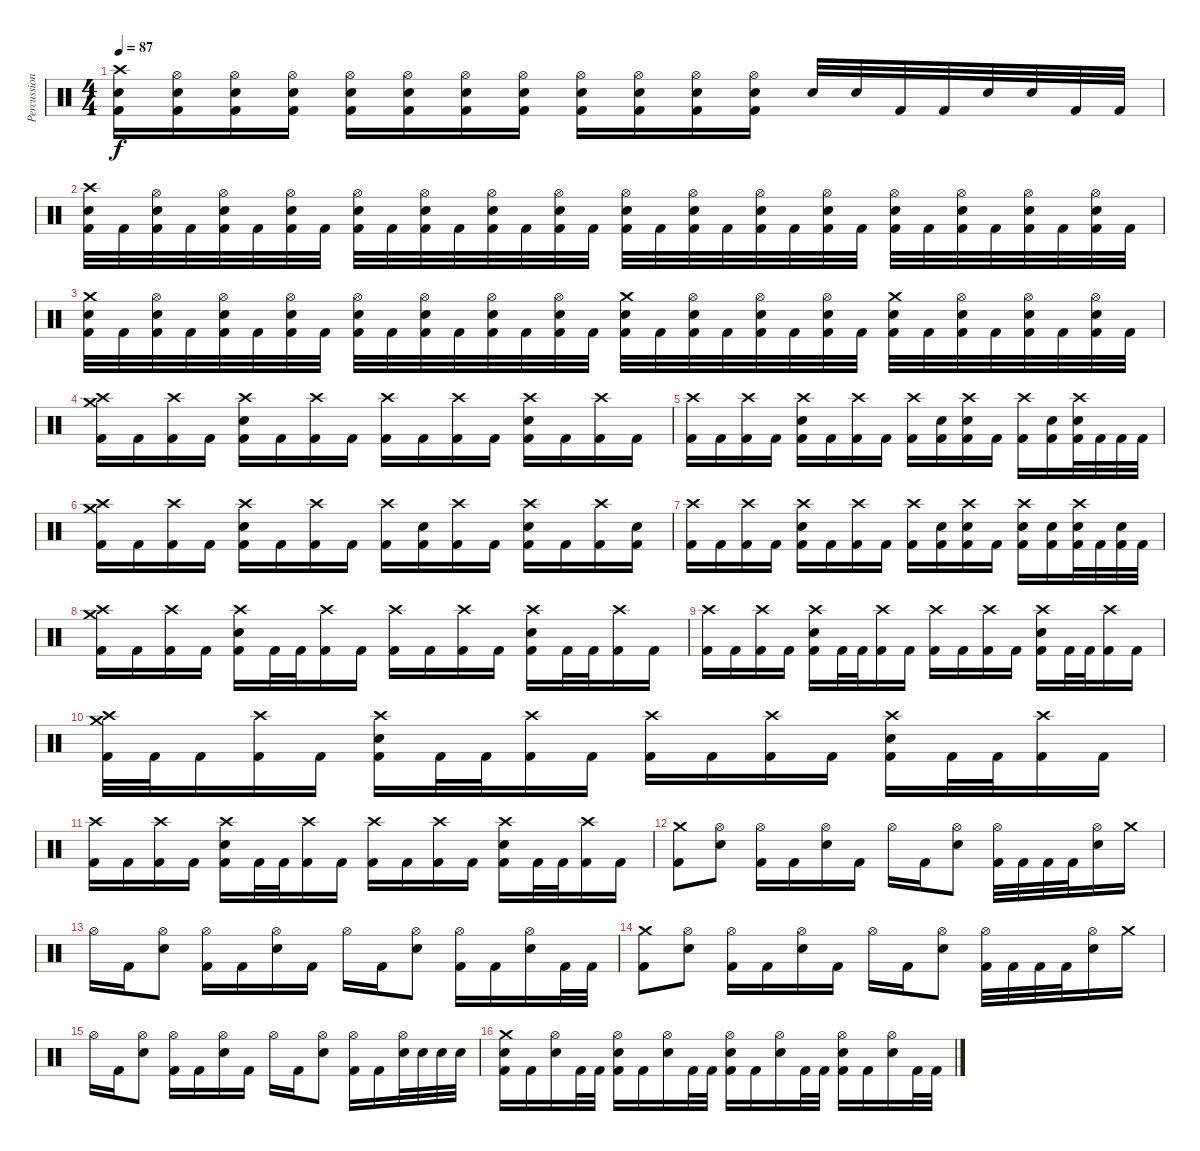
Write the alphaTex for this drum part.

\track ("Percussion" "Percussion") {instrument percussion}
\staff {score}
\articulation defaults
\ts (4 4)
\tempo 87
\clef neutral
\ks c
("Crash high (hit)" "Electric Snare (hit)" "Kick (hit) 2").16{dy f} ("Hi-Hat (open)" "Electric Snare (hit)" "Kick (hit) 2").16 ("Hi-Hat (open)" "Electric Snare (hit)" "Kick (hit) 2").16 ("Hi-Hat (open)" "Electric Snare (hit)" "Kick (hit) 2").16 ("Hi-Hat (open)" "Electric Snare (hit)" "Kick (hit) 2").16 ("Hi-Hat (open)" "Electric Snare (hit)" "Kick (hit) 2").16 ("Hi-Hat (open)" "Electric Snare (hit)" "Kick (hit) 2").16 ("Hi-Hat (open)" "Electric Snare (hit)" "Kick (hit) 2").16 ("Hi-Hat (open)" "Electric Snare (hit)" "Kick (hit) 2").16 ("Hi-Hat (open)" "Electric Snare (hit)" "Kick (hit) 2").16 ("Hi-Hat (open)" "Electric Snare (hit)" "Kick (hit) 2").16 ("Hi-Hat (open)" "Electric Snare (hit)" "Kick (hit) 2").16 "Electric Snare (hit)".32 "Electric Snare (hit)".32 "Kick (hit) 2".32 "Kick (hit) 2".32 "Electric Snare (hit)".32 "Electric Snare (hit)".32 "Kick (hit) 2".32 "Kick (hit) 2".32 |
("Crash high (hit)" "Electric Snare (hit)" "Kick (hit) 2").32 "Kick (hit) 2".32 ("Hi-Hat (open)" "Electric Snare (hit)" "Kick (hit) 2").32 "Kick (hit) 2".32 ("Hi-Hat (open)" "Electric Snare (hit)" "Kick (hit) 2").32 "Kick (hit) 2".32 ("Hi-Hat (open)" "Electric Snare (hit)" "Kick (hit) 2").32 "Kick (hit) 2".32 ("Hi-Hat (open)" "Electric Snare (hit)" "Kick (hit) 2").32 "Kick (hit) 2".32 ("Hi-Hat (open)" "Electric Snare (hit)" "Kick (hit) 2").32 "Kick (hit) 2".32 ("Hi-Hat (open)" "Electric Snare (hit)" "Kick (hit) 2").32 "Kick (hit) 2".32 ("Hi-Hat (open)" "Electric Snare (hit)" "Kick (hit) 2").32 "Kick (hit) 2".32 ("Hi-Hat (open)" "Electric Snare (hit)" "Kick (hit) 2").32 "Kick (hit) 2".32 ("Hi-Hat (open)" "Electric Snare (hit)" "Kick (hit) 2").32 "Kick (hit) 2".32 ("Hi-Hat (open)" "Electric Snare (hit)" "Kick (hit) 2").32 "Kick (hit) 2".32 ("Hi-Hat (open)" "Electric Snare (hit)" "Kick (hit) 2").32 "Kick (hit) 2".32 ("Hi-Hat (open)" "Electric Snare (hit)" "Kick (hit) 2").32 "Kick (hit) 2".32 ("Hi-Hat (open)" "Electric Snare (hit)" "Kick (hit) 2").32 "Kick (hit) 2".32 ("Hi-Hat (open)" "Electric Snare (hit)" "Kick (hit) 2").32 "Kick (hit) 2".32 ("Hi-Hat (open)" "Electric Snare (hit)" "Kick (hit) 2").32 "Kick (hit) 2".32 |
("Crash medium (hit)" "Electric Snare (hit)" "Kick (hit) 2").32 "Kick (hit) 2".32 ("Hi-Hat (open)" "Electric Snare (hit)" "Kick (hit) 2").32 "Kick (hit) 2".32 ("Hi-Hat (open)" "Electric Snare (hit)" "Kick (hit) 2").32 "Kick (hit) 2".32 ("Hi-Hat (open)" "Electric Snare (hit)" "Kick (hit) 2").32 "Kick (hit) 2".32 ("Hi-Hat (open)" "Electric Snare (hit)" "Kick (hit) 2").32 "Kick (hit) 2".32 ("Hi-Hat (open)" "Electric Snare (hit)" "Kick (hit) 2").32 "Kick (hit) 2".32 ("Hi-Hat (open)" "Electric Snare (hit)" "Kick (hit) 2").32 "Kick (hit) 2".32 ("Hi-Hat (open)" "Electric Snare (hit)" "Kick (hit) 2").32 "Kick (hit) 2".32 ("Crash medium (hit)" "Electric Snare (hit)" "Kick (hit) 2").32 "Kick (hit) 2".32 ("Hi-Hat (open)" "Electric Snare (hit)" "Kick (hit) 2").32 "Kick (hit) 2".32 ("Hi-Hat (open)" "Electric Snare (hit)" "Kick (hit) 2").32 "Kick (hit) 2".32 ("Hi-Hat (open)" "Electric Snare (hit)" "Kick (hit) 2").32 "Kick (hit) 2".32 ("Crash medium (hit)" "Electric Snare (hit)" "Kick (hit) 2").32 "Kick (hit) 2".32 ("Hi-Hat (open)" "Electric Snare (hit)" "Kick (hit) 2").32 "Kick (hit) 2".32 ("Hi-Hat (open)" "Electric Snare (hit)" "Kick (hit) 2").32 "Kick (hit) 2".32 ("Hi-Hat (open)" "Electric Snare (hit)" "Kick (hit) 2").32 "Kick (hit) 2".32 |
("Crash medium (hit)" "Crash high (hit)" "Kick (hit) 2").16 "Kick (hit) 2".16 ("Crash high (hit)" "Kick (hit) 2").16 "Kick (hit) 2".16 ("Crash high (hit)" "Electric Snare (hit)" "Kick (hit) 2").16 "Kick (hit) 2".16 ("Crash high (hit)" "Kick (hit) 2").16 "Kick (hit) 2".16 ("Crash high (hit)" "Kick (hit) 2").16 "Kick (hit) 2".16 ("Crash high (hit)" "Kick (hit) 2").16 "Kick (hit) 2".16 ("Crash high (hit)" "Electric Snare (hit)" "Kick (hit) 2").16 "Kick (hit) 2".16 ("Crash high (hit)" "Kick (hit) 2").16 "Kick (hit) 2".16 |
("Crash high (hit)" "Kick (hit) 2").16 "Kick (hit) 2".16 ("Crash high (hit)" "Kick (hit) 2").16 "Kick (hit) 2".16 ("Crash high (hit)" "Electric Snare (hit)" "Kick (hit) 2").16 "Kick (hit) 2".16 ("Crash high (hit)" "Kick (hit) 2").16 "Kick (hit) 2".16 ("Crash high (hit)" "Kick (hit) 2").16 ("Electric Snare (hit)" "Kick (hit) 2").16 ("Crash high (hit)" "Electric Snare (hit)" "Kick (hit) 2").16 "Kick (hit) 2".16 ("Crash high (hit)" "Kick (hit) 2").16 ("Electric Snare (hit)" "Kick (hit) 2").16 ("Crash high (hit)" "Electric Snare (hit)" "Kick (hit) 2").32 "Kick (hit) 2".32 "Kick (hit) 2".32 "Kick (hit) 2".32 |
("Crash medium (hit)" "Crash high (hit)" "Kick (hit) 2").16 "Kick (hit) 2".16 ("Crash high (hit)" "Kick (hit) 2").16 "Kick (hit) 2".16 ("Crash high (hit)" "Electric Snare (hit)" "Kick (hit) 2").16 "Kick (hit) 2".16 ("Crash high (hit)" "Kick (hit) 2").16 "Kick (hit) 2".16 ("Crash high (hit)" "Kick (hit) 2").16 ("Electric Snare (hit)" "Kick (hit) 2").16 ("Crash high (hit)" "Kick (hit) 2").16 "Kick (hit) 2".16 ("Crash high (hit)" "Electric Snare (hit)" "Kick (hit) 2").16 "Kick (hit) 2".16 ("Crash high (hit)" "Kick (hit) 2").16 ("Electric Snare (hit)" "Kick (hit) 2").16 |
("Crash high (hit)" "Kick (hit) 2").16 "Kick (hit) 2".16 ("Crash high (hit)" "Kick (hit) 2").16 "Kick (hit) 2".16 ("Crash high (hit)" "Electric Snare (hit)" "Kick (hit) 2").16 "Kick (hit) 2".16 ("Crash high (hit)" "Kick (hit) 2").16 "Kick (hit) 2".16 ("Crash high (hit)" "Kick (hit) 2").16 ("Electric Snare (hit)" "Kick (hit) 2").16 ("Crash high (hit)" "Electric Snare (hit)" "Kick (hit) 2").16 "Kick (hit) 2".16 ("Crash high (hit)" "Electric Snare (hit)" "Kick (hit) 2").16 ("Electric Snare (hit)" "Kick (hit) 2").16 ("Crash high (hit)" "Electric Snare (hit)" "Kick (hit) 2").32 "Kick (hit) 2".32 ("Electric Snare (hit)" "Kick (hit) 2").32 "Kick (hit) 2".32 |
("Crash medium (hit)" "Crash high (hit)" "Kick (hit) 2").16 "Kick (hit) 2".16 ("Crash high (hit)" "Kick (hit) 2").16 "Kick (hit) 2".16 ("Crash high (hit)" "Electric Snare (hit)" "Kick (hit) 2").16 "Kick (hit) 2".32 "Kick (hit) 2".32 ("Crash high (hit)" "Kick (hit) 2").16 "Kick (hit) 2".16 ("Crash high (hit)" "Kick (hit) 2").16 "Kick (hit) 2".16 ("Crash high (hit)" "Kick (hit) 2").16 "Kick (hit) 2".16 ("Crash high (hit)" "Electric Snare (hit)" "Kick (hit) 2").16 "Kick (hit) 2".32 "Kick (hit) 2".32 ("Crash high (hit)" "Kick (hit) 2").16 "Kick (hit) 2".16 |
("Crash high (hit)" "Kick (hit) 2").16 "Kick (hit) 2".16 ("Crash high (hit)" "Kick (hit) 2").16 "Kick (hit) 2".16 ("Crash high (hit)" "Electric Snare (hit)" "Kick (hit) 2").16 "Kick (hit) 2".32 "Kick (hit) 2".32 ("Crash high (hit)" "Kick (hit) 2").16 "Kick (hit) 2".16 ("Crash high (hit)" "Kick (hit) 2").16 "Kick (hit) 2".16 ("Crash high (hit)" "Kick (hit) 2").16 "Kick (hit) 2".16 ("Crash high (hit)" "Electric Snare (hit)" "Kick (hit) 2").16 "Kick (hit) 2".32 "Kick (hit) 2".32 ("Crash high (hit)" "Kick (hit) 2").16 "Kick (hit) 2".16 |
("Crash medium (hit)" "Crash high (hit)" "Kick (hit) 2").32 "Kick (hit) 2".32 "Kick (hit) 2".16 ("Crash high (hit)" "Kick (hit) 2").16 "Kick (hit) 2".16 ("Crash high (hit)" "Electric Snare (hit)" "Kick (hit) 2").16 "Kick (hit) 2".32 "Kick (hit) 2".32 ("Crash high (hit)" "Kick (hit) 2").16 "Kick (hit) 2".16 ("Crash high (hit)" "Kick (hit) 2").16 "Kick (hit) 2".16 ("Crash high (hit)" "Kick (hit) 2").16 "Kick (hit) 2".16 ("Crash high (hit)" "Electric Snare (hit)" "Kick (hit) 2").16 "Kick (hit) 2".32 "Kick (hit) 2".32 ("Crash high (hit)" "Kick (hit) 2").16 "Kick (hit) 2".16 |
("Crash high (hit)" "Kick (hit) 2").16 "Kick (hit) 2".16 ("Crash high (hit)" "Kick (hit) 2").16 "Kick (hit) 2".16 ("Crash high (hit)" "Electric Snare (hit)" "Kick (hit) 2").16 "Kick (hit) 2".32 "Kick (hit) 2".32 ("Crash high (hit)" "Kick (hit) 2").16 "Kick (hit) 2".16 ("Crash high (hit)" "Kick (hit) 2").16 "Kick (hit) 2".16 ("Crash high (hit)" "Kick (hit) 2").16 "Kick (hit) 2".16 ("Crash high (hit)" "Electric Snare (hit)" "Kick (hit) 2").16 "Kick (hit) 2".32 "Kick (hit) 2".32 ("Crash high (hit)" "Kick (hit) 2").16 "Kick (hit) 2".16 |
("Crash medium (hit)" "Kick (hit) 2").8 ("Hi-Hat (open)" "Electric Snare (hit)").8 ("Hi-Hat (open)" "Kick (hit) 2").16 "Kick (hit) 2".16 ("Hi-Hat (open)" "Electric Snare (hit)").16 "Kick (hit) 2".16 "Hi-Hat (open)".16 "Kick (hit) 2".16 ("Hi-Hat (open)" "Electric Snare (hit)").8 ("Hi-Hat (open)" "Kick (hit) 2").32 "Kick (hit) 2".32 "Kick (hit) 2".32 "Kick (hit) 2".32 ("Hi-Hat (open)" "Electric Snare (hit)").16 "Crash medium (hit)".16 |
"Hi-Hat (open)".16 "Kick (hit) 2".16 ("Hi-Hat (open)" "Electric Snare (hit)").8 ("Hi-Hat (open)" "Kick (hit) 2").16 "Kick (hit) 2".16 ("Hi-Hat (open)" "Electric Snare (hit)").16 "Kick (hit) 2".16 "Hi-Hat (open)".16 "Kick (hit) 2".16 ("Hi-Hat (open)" "Electric Snare (hit)").8 ("Hi-Hat (open)" "Kick (hit) 2").16 "Kick (hit) 2".16 ("Hi-Hat (open)" "Electric Snare (hit)").16 "Kick (hit) 2".32 "Kick (hit) 2".32 |
("Crash medium (hit)" "Kick (hit) 2").8 ("Hi-Hat (open)" "Electric Snare (hit)").8 ("Hi-Hat (open)" "Kick (hit) 2").16 "Kick (hit) 2".16 ("Hi-Hat (open)" "Electric Snare (hit)").16 "Kick (hit) 2".16 "Hi-Hat (open)".16 "Kick (hit) 2".16 ("Hi-Hat (open)" "Electric Snare (hit)").8 ("Hi-Hat (open)" "Kick (hit) 2").32 "Kick (hit) 2".32 "Kick (hit) 2".32 "Kick (hit) 2".32 ("Hi-Hat (open)" "Electric Snare (hit)").16 "Crash medium (hit)".16 |
"Hi-Hat (open)".16 "Kick (hit) 2".16 ("Hi-Hat (open)" "Electric Snare (hit)").8 ("Hi-Hat (open)" "Kick (hit) 2").16 "Kick (hit) 2".16 ("Hi-Hat (open)" "Electric Snare (hit)").16 "Kick (hit) 2".16 "Hi-Hat (open)".16 "Kick (hit) 2".16 ("Hi-Hat (open)" "Electric Snare (hit)").8 ("Hi-Hat (open)" "Kick (hit) 2").16 "Kick (hit) 2".16 ("Hi-Hat (open)" "Electric Snare (hit)").32 "Electric Snare (hit)".32 "Electric Snare (hit)".32 "Electric Snare (hit)".32 |
("Crash medium (hit)" "Electric Snare (hit)" "Kick (hit) 2").16 "Kick (hit) 2".16 ("Hi-Hat (open)" "Electric Snare (hit)").16 "Kick (hit) 2".32 "Kick (hit) 2".32 ("Hi-Hat (open)" "Electric Snare (hit)" "Kick (hit) 2").16 "Kick (hit) 2".16 ("Hi-Hat (open)" "Electric Snare (hit)").16 "Kick (hit) 2".32 "Kick (hit) 2".32 ("Hi-Hat (open)" "Electric Snare (hit)" "Kick (hit) 2").16 "Kick (hit) 2".16 ("Hi-Hat (open)" "Electric Snare (hit)").16 "Kick (hit) 2".32 "Kick (hit) 2".32 ("Hi-Hat (open)" "Electric Snare (hit)" "Kick (hit) 2").16 "Kick (hit) 2".16 ("Hi-Hat (open)" "Electric Snare (hit)").16 "Kick (hit) 2".32 "Kick (hit) 2".32
